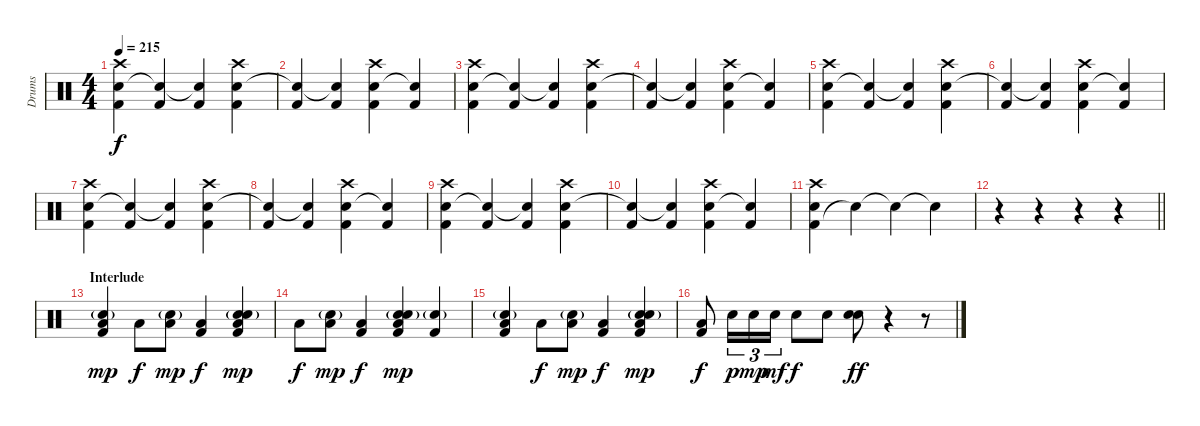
\track ("Drums" "Drums") {instrument percussion}
\staff {score}
\articulation defaults
\ts (4 4)
\tempo 215
\clef neutral
\ks c
("Kick (hit) 2" "Snare (hit) 2" "Crash high (hit)").4{dy f} ("Kick (hit) 2" "Snare (hit)"{t}).4 ("Kick (hit) 2" "Snare (hit)"{t}).4 ("Kick (hit) 2" "Snare (hit) 2" "Crash high (hit)").4 |
("Kick (hit) 2" "Snare (hit)"{t}).4 ("Kick (hit) 2" "Snare (hit)"{t}).4 ("Kick (hit) 2" "Snare (hit) 2" "Crash high (hit)").4 ("Kick (hit) 2" "Snare (hit)"{t}).4 |
("Kick (hit) 2" "Snare (hit) 2" "Crash high (hit)").4 ("Kick (hit) 2" "Snare (hit)"{t}).4 ("Kick (hit) 2" "Snare (hit)"{t}).4 ("Kick (hit) 2" "Snare (hit) 2" "Crash high (hit)").4 |
("Kick (hit) 2" "Snare (hit)"{t}).4 ("Kick (hit) 2" "Snare (hit)"{t}).4 ("Kick (hit) 2" "Snare (hit) 2" "Crash high (hit)").4 ("Kick (hit) 2" "Snare (hit)"{t}).4 |
("Kick (hit) 2" "Snare (hit) 2" "Crash high (hit)").4 ("Kick (hit) 2" "Snare (hit)"{t}).4 ("Kick (hit) 2" "Snare (hit)"{t}).4 ("Kick (hit) 2" "Snare (hit) 2" "Crash high (hit)").4 |
("Kick (hit) 2" "Snare (hit)"{t}).4 ("Kick (hit) 2" "Snare (hit)"{t}).4 ("Kick (hit) 2" "Snare (hit) 2" "Crash high (hit)").4 ("Kick (hit) 2" "Snare (hit)"{t}).4 |
("Kick (hit) 2" "Snare (hit) 2" "Crash high (hit)").4 ("Kick (hit) 2" "Snare (hit)"{t}).4 ("Kick (hit) 2" "Snare (hit)"{t}).4 ("Kick (hit) 2" "Snare (hit) 2" "Crash high (hit)").4 |
("Kick (hit) 2" "Snare (hit)"{t}).4 ("Kick (hit) 2" "Snare (hit)"{t}).4 ("Kick (hit) 2" "Snare (hit) 2" "Crash high (hit)").4 ("Kick (hit) 2" "Snare (hit)"{t}).4 |
("Kick (hit) 2" "Snare (hit) 2" "Crash high (hit)").4 ("Kick (hit) 2" "Snare (hit)"{t}).4 ("Kick (hit) 2" "Snare (hit)"{t}).4 ("Kick (hit) 2" "Snare (hit) 2" "Crash high (hit)").4 |
("Kick (hit) 2" "Snare (hit)"{t}).4 ("Kick (hit) 2" "Snare (hit)"{t}).4 ("Kick (hit) 2" "Snare (hit) 2" "Crash high (hit)").4 ("Kick (hit) 2" "Snare (hit)"{t}).4 |
("Kick (hit) 2" "Snare (hit) 2" "Crash high (hit)").4 "Snare (hit)"{t}.4 "Snare (hit)"{t}.4 "Snare (hit)"{t}.4 |
\barLineRight lightlight
r.4 r.4 r.4 r.4 |
\section ("" "Interlude")
("Electric Snare (hit)"{g} "Low Floor Tom (hit)" "Kick (hit) 2").4{dy mp} "Low Floor Tom (hit)".8{dy f} ("Electric Snare (hit)"{g} "Low Floor Tom (hit)").8{dy mp} ("Low Floor Tom (hit)" "Kick (hit) 2").4{dy f} ("Electric Snare (hit)" "Kick (hit) 2" "Low Floor Tom (hit)" "Snare (hit) 2"{g}).4{dy mp} |
"Low Floor Tom (hit)".8{dy f} ("Electric Snare (hit)"{g} "Low Floor Tom (hit)").8{dy mp} ("Low Floor Tom (hit)" "Kick (hit) 2").4{dy f} ("Snare (hit) 2"{g} "Electric Snare (hit)" "Kick (hit) 2" "Low Floor Tom (hit)").4{dy mp} ("Electric Snare (hit)"{g} "Kick (hit) 2").4 |
("Electric Snare (hit)"{g} "Low Floor Tom (hit)" "Kick (hit) 2").4 "Low Floor Tom (hit)".8{dy f} ("Electric Snare (hit)"{g} "Low Floor Tom (hit)").8{dy mp} ("Low Floor Tom (hit)" "Kick (hit) 2").4{dy f} ("Electric Snare (hit)" "Kick (hit) 2" "Low Floor Tom (hit)" "Snare (hit) 2"{g}).4{dy mp} |
("Low Floor Tom (hit)" "Kick (hit) 2").8{dy f} "Snare (hit) 2".16{tu (3 2) dy p} "Snare (hit) 2".16{tu (3 2) dy mp} "Snare (hit) 2".16{tu (3 2) dy mf} "Snare (hit) 2".8{dy f} "Snare (hit) 2".8 ("Electric Snare (hit)" "Snare (hit) 2").8{dy ff} r.4 r.8
